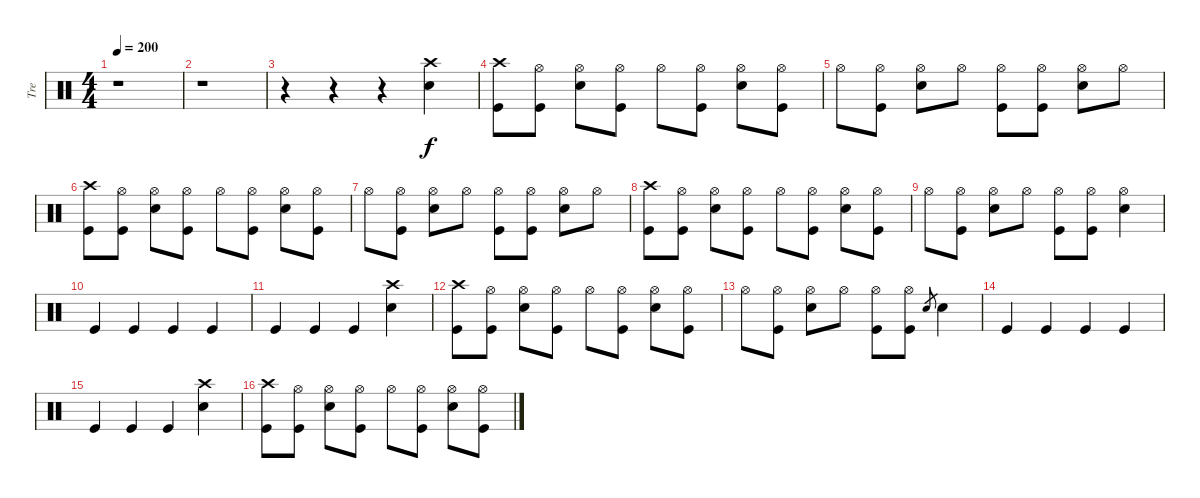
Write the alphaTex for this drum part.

\track ("Tre" "Tre") {instrument percussion}
\staff {score}
\articulation defaults
\ts (4 4)
\tempo 200
\clef neutral
\ks c
r.1{dy f} |
r.1 |
r.4 r.4 r.4 ("Snare (hit) 2" "Crash high (hit)").4 |
("Crash high (hit)" "Kick (hit)").8 ("Hi-Hat (open)" "Kick (hit)").8 ("Hi-Hat (open)" "Snare (hit) 2").8 ("Hi-Hat (open)" "Kick (hit)").8 "Hi-Hat (open)".8 ("Hi-Hat (open)" "Kick (hit)").8 ("Hi-Hat (open)" "Snare (hit) 2").8 ("Hi-Hat (open)" "Kick (hit)").8 |
"Hi-Hat (open)".8 ("Hi-Hat (open)" "Kick (hit)").8 ("Hi-Hat (open)" "Snare (hit) 2").8 "Hi-Hat (open)".8 ("Hi-Hat (open)" "Kick (hit)").8 ("Hi-Hat (open)" "Kick (hit)").8 ("Hi-Hat (open)" "Snare (hit) 2").8 "Hi-Hat (open)".8 |
("Crash high (hit)" "Kick (hit)").8 ("Hi-Hat (open)" "Kick (hit)").8 ("Hi-Hat (open)" "Snare (hit) 2").8 ("Hi-Hat (open)" "Kick (hit)").8 "Hi-Hat (open)".8 ("Hi-Hat (open)" "Kick (hit)").8 ("Hi-Hat (open)" "Snare (hit) 2").8 ("Hi-Hat (open)" "Kick (hit)").8 |
"Hi-Hat (open)".8 ("Hi-Hat (open)" "Kick (hit)").8 ("Hi-Hat (open)" "Snare (hit) 2").8 "Hi-Hat (open)".8 ("Hi-Hat (open)" "Kick (hit)").8 ("Hi-Hat (open)" "Kick (hit)").8 ("Hi-Hat (open)" "Snare (hit) 2").8 "Hi-Hat (open)".8 |
("Crash high (hit)" "Kick (hit)").8 ("Hi-Hat (open)" "Kick (hit)").8 ("Hi-Hat (open)" "Snare (hit) 2").8 ("Hi-Hat (open)" "Kick (hit)").8 "Hi-Hat (open)".8 ("Hi-Hat (open)" "Kick (hit)").8 ("Hi-Hat (open)" "Snare (hit) 2").8 ("Hi-Hat (open)" "Kick (hit)").8 |
"Hi-Hat (open)".8 ("Hi-Hat (open)" "Kick (hit)").8 ("Hi-Hat (open)" "Snare (hit) 2").8 "Hi-Hat (open)".8 ("Hi-Hat (open)" "Kick (hit)").8 ("Hi-Hat (open)" "Kick (hit)").8 ("Hi-Hat (open)" "Snare (hit) 2").4 |
"Kick (hit)".4 "Kick (hit)".4 "Kick (hit)".4 "Kick (hit)".4 |
"Kick (hit)".4 "Kick (hit)".4 "Kick (hit)".4 ("Snare (hit) 2" "Crash high (hit)").4 |
("Crash high (hit)" "Kick (hit)").8 ("Hi-Hat (open)" "Kick (hit)").8 ("Hi-Hat (open)" "Snare (hit) 2").8 ("Hi-Hat (open)" "Kick (hit)").8 "Hi-Hat (open)".8 ("Hi-Hat (open)" "Kick (hit)").8 ("Hi-Hat (open)" "Snare (hit) 2").8 ("Hi-Hat (open)" "Kick (hit)").8 |
"Hi-Hat (open)".8 ("Hi-Hat (open)" "Kick (hit)").8 ("Hi-Hat (open)" "Snare (hit) 2").8 "Hi-Hat (open)".8 ("Hi-Hat (open)" "Kick (hit)").8 ("Hi-Hat (open)" "Kick (hit)").8 "Snare (hit) 2".8{gr} "Snare (hit) 2".4 |
"Kick (hit)".4 "Kick (hit)".4 "Kick (hit)".4 "Kick (hit)".4 |
"Kick (hit)".4 "Kick (hit)".4 "Kick (hit)".4 ("Snare (hit) 2" "Crash high (hit)").4 |
("Crash high (hit)" "Kick (hit)").8 ("Hi-Hat (open)" "Kick (hit)").8 ("Hi-Hat (open)" "Snare (hit) 2").8 ("Hi-Hat (open)" "Kick (hit)").8 "Hi-Hat (open)".8 ("Hi-Hat (open)" "Kick (hit)").8 ("Hi-Hat (open)" "Snare (hit) 2").8 ("Hi-Hat (open)" "Kick (hit)").8
